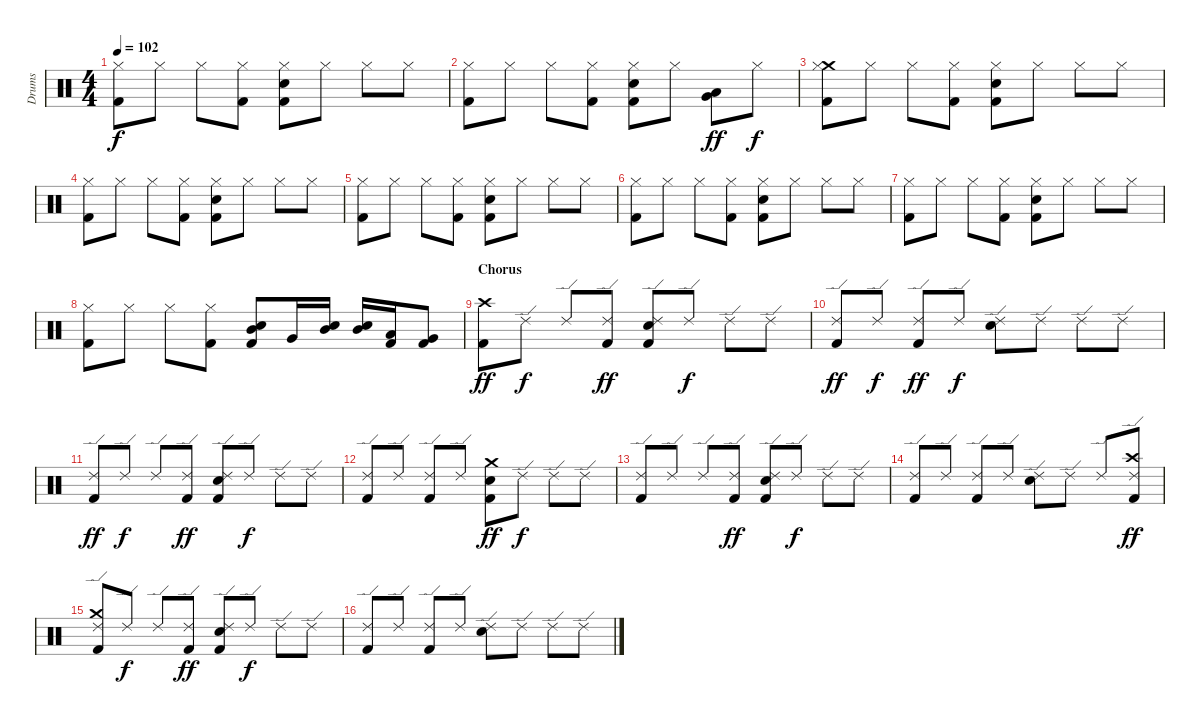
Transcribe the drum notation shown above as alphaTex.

\track ("Drums" "Drums") {instrument percussion}
\staff {score}
\articulation defaults
\ts (4 4)
\tempo 102
\clef neutral
\ks c
("Hi-Hat (closed)" "Kick (hit) 2").8{dy f} "Hi-Hat (closed)".8 "Hi-Hat (closed)".8 ("Hi-Hat (closed)" "Kick (hit) 2").8 ("Electric Snare (hit)" "Hi-Hat (closed)" "Kick (hit) 2").8 "Hi-Hat (closed)".8 "Hi-Hat (closed)".8 "Hi-Hat (closed)".8 |
("Hi-Hat (closed)" "Kick (hit) 2").8 "Hi-Hat (closed)".8 "Hi-Hat (closed)".8 ("Hi-Hat (closed)" "Kick (hit) 2").8 ("Electric Snare (hit)" "Hi-Hat (closed)" "Kick (hit) 2").8 "Hi-Hat (closed)".8 ("Low Floor Tom (hit)" "Very Low Tom (hit)").8{dy ff} "Hi-Hat (closed)".8{dy f} |
("Crash medium (hit)" "Hi-Hat (closed)" "Kick (hit) 2").8 "Hi-Hat (closed)".8 "Hi-Hat (closed)".8 ("Hi-Hat (closed)" "Kick (hit) 2").8 ("Electric Snare (hit)" "Hi-Hat (closed)" "Kick (hit) 2").8 "Hi-Hat (closed)".8 "Hi-Hat (closed)".8 "Hi-Hat (closed)".8 |
("Hi-Hat (closed)" "Kick (hit) 2").8 "Hi-Hat (closed)".8 "Hi-Hat (closed)".8 ("Hi-Hat (closed)" "Kick (hit) 2").8 ("Electric Snare (hit)" "Hi-Hat (closed)" "Kick (hit) 2").8 "Hi-Hat (closed)".8 "Hi-Hat (closed)".8 "Hi-Hat (closed)".8 |
("Hi-Hat (closed)" "Kick (hit) 2").8 "Hi-Hat (closed)".8 "Hi-Hat (closed)".8 ("Hi-Hat (closed)" "Kick (hit) 2").8 ("Electric Snare (hit)" "Hi-Hat (closed)" "Kick (hit) 2").8 "Hi-Hat (closed)".8 "Hi-Hat (closed)".8 "Hi-Hat (closed)".8 |
("Hi-Hat (closed)" "Kick (hit) 2").8 "Hi-Hat (closed)".8 "Hi-Hat (closed)".8 ("Hi-Hat (closed)" "Kick (hit) 2").8 ("Electric Snare (hit)" "Hi-Hat (closed)" "Kick (hit) 2").8 "Hi-Hat (closed)".8 "Hi-Hat (closed)".8 "Hi-Hat (closed)".8 |
("Hi-Hat (closed)" "Kick (hit) 2").8 "Hi-Hat (closed)".8 "Hi-Hat (closed)".8 ("Hi-Hat (closed)" "Kick (hit) 2").8 ("Electric Snare (hit)" "Hi-Hat (closed)" "Kick (hit) 2").8 "Hi-Hat (closed)".8 "Hi-Hat (closed)".8 "Hi-Hat (closed)".8 |
("Hi-Hat (closed)" "Kick (hit) 2").8 "Hi-Hat (closed)".8 "Hi-Hat (closed)".8 ("Hi-Hat (closed)" "Kick (hit) 2").8 ("Electric Snare (hit)" "Mid Tom (hit)" "Kick (hit) 2").8 "Very Low Tom (hit)".16 ("Electric Snare (hit)" "Mid Tom (hit)").16 ("Electric Snare (hit)" "Mid Tom (hit)").16 ("Low Tom (hit)" "Kick (hit) 2").16 ("Very Low Tom (hit)" "Kick (hit) 2").8 |
\section ("" "Chorus")
("Crash high (hit)" "Kick (hit) 2").8{dy ff} "Ride (edge) 2".8{dy f} "Ride (edge) 2".8 ("Ride (edge) 2" "Kick (hit) 2").8{dy ff} ("Electric Snare (hit)" "Ride (edge) 2" "Kick (hit) 2").8 "Ride (edge) 2".8{dy f} "Ride (edge) 2".8 "Ride (edge) 2".8 |
("Ride (edge) 2" "Kick (hit) 2").8{dy ff} "Ride (edge) 2".8{dy f} ("Ride (edge) 2" "Kick (hit) 2").8{dy ff} "Ride (edge) 2".8{dy f} ("Electric Snare (hit)" "Ride (edge) 2").8 "Ride (edge) 2".8 "Ride (edge) 2".8 "Ride (edge) 2".8 |
("Ride (edge) 2" "Kick (hit) 2").8{dy ff} "Ride (edge) 2".8{dy f} "Ride (edge) 2".8 ("Ride (edge) 2" "Kick (hit) 2").8{dy ff} ("Electric Snare (hit)" "Ride (edge) 2" "Kick (hit) 2").8 "Ride (edge) 2".8{dy f} "Ride (edge) 2".8 "Ride (edge) 2".8 |
("Ride (edge) 2" "Kick (hit) 2").8 "Ride (edge) 2".8 ("Ride (edge) 2" "Kick (hit) 2").8 "Ride (edge) 2".8 ("Crash medium (hit)" "Electric Snare (hit)" "Kick (hit) 2").8{dy ff} "Ride (edge) 2".8{dy f} "Ride (edge) 2".8 "Ride (edge) 2".8 |
("Ride (edge) 2" "Kick (hit) 2").8 "Ride (edge) 2".8 "Ride (edge) 2".8 ("Ride (edge) 2" "Kick (hit) 2").8{dy ff} ("Electric Snare (hit)" "Ride (edge) 2" "Kick (hit) 2").8 "Ride (edge) 2".8{dy f} "Ride (edge) 2".8 "Ride (edge) 2".8 |
("Ride (edge) 2" "Kick (hit) 2").8 "Ride (edge) 2".8 ("Ride (edge) 2" "Kick (hit) 2").8 "Ride (edge) 2".8 ("Electric Snare (hit)" "Ride (edge) 2").8 "Ride (edge) 2".8 "Ride (edge) 2".8 ("Crash high (hit)" "Ride (edge) 2" "Kick (hit) 2").8{dy ff} |
("Crash medium (hit)" "Ride (edge) 2" "Kick (hit) 2").8 "Ride (edge) 2".8{dy f} "Ride (edge) 2".8 ("Ride (edge) 2" "Kick (hit) 2").8{dy ff} ("Electric Snare (hit)" "Ride (edge) 2" "Kick (hit) 2").8 "Ride (edge) 2".8{dy f} "Ride (edge) 2".8 "Ride (edge) 2".8 |
("Ride (edge) 2" "Kick (hit) 2").8 "Ride (edge) 2".8 ("Ride (edge) 2" "Kick (hit) 2").8 "Ride (edge) 2".8 ("Electric Snare (hit)" "Ride (edge) 2").8 "Ride (edge) 2".8 "Ride (edge) 2".8 "Ride (edge) 2".8
